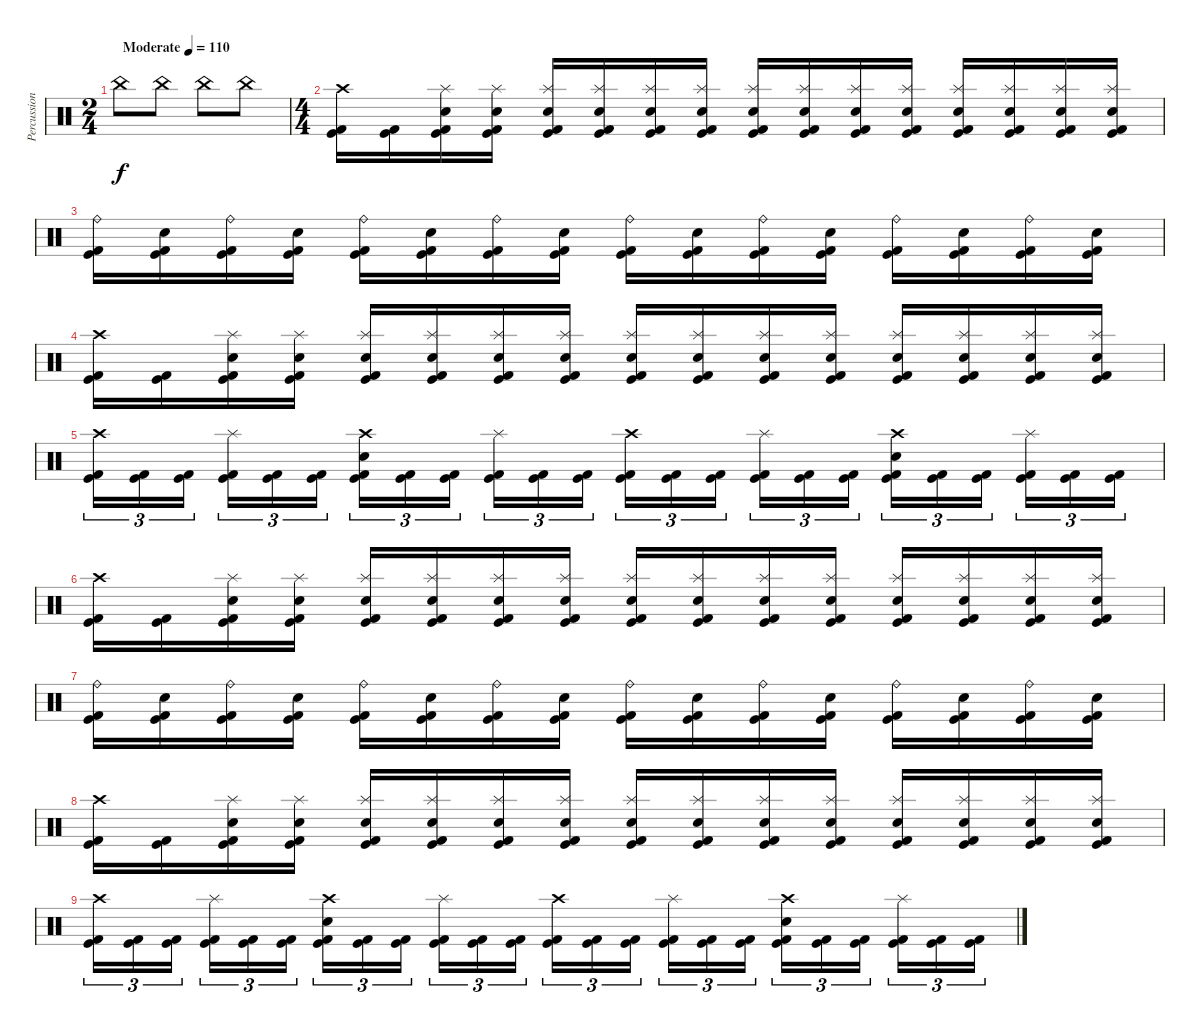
\track ("Percussion" "Percussion") {instrument percussion}
\staff {score}
\articulation defaults
\ts (2 4)
\tempo (110 "Moderate")
\clef neutral
\ks c "China (hit)".8{dy f} "China (hit)".8 "China (hit)".8 "China (hit)".8
|
\ts (4 4)
("Crash high (hit)" "Kick (hit) 2" "Kick (hit)").16 ("Kick (hit) 2" "Kick (hit)").16 ("Splash (hit)" "Snare (hit) 2" "Kick (hit) 2" "Kick (hit)").16 ("Splash (hit)" "Snare (hit) 2" "Kick (hit) 2" "Kick (hit)").16 ("Splash (hit)" "Snare (hit) 2" "Kick (hit) 2" "Kick (hit)").16 ("Splash (hit)" "Snare (hit) 2" "Kick (hit) 2" "Kick (hit)").16 ("Splash (hit)" "Snare (hit) 2" "Kick (hit) 2" "Kick (hit)").16 ("Splash (hit)" "Snare (hit) 2" "Kick (hit) 2" "Kick (hit)").16 ("Splash (hit)" "Snare (hit) 2" "Kick (hit) 2" "Kick (hit)").16 ("Splash (hit)" "Snare (hit) 2" "Kick (hit) 2" "Kick (hit)").16 ("Splash (hit)" "Snare (hit) 2" "Kick (hit) 2" "Kick (hit)").16 ("Splash (hit)" "Snare (hit) 2" "Kick (hit) 2" "Kick (hit)").16 ("Splash (hit)" "Snare (hit) 2" "Kick (hit) 2" "Kick (hit)").16 ("Splash (hit)" "Snare (hit) 2" "Kick (hit) 2" "Kick (hit)").16 ("Splash (hit)" "Snare (hit) 2" "Kick (hit) 2" "Kick (hit)").16 ("Splash (hit)" "Snare (hit) 2" "Kick (hit) 2" "Kick (hit)").16 |
("Ride (bell)" "Kick (hit) 2" "Kick (hit)").16 ("Snare (hit) 2" "Kick (hit) 2" "Kick (hit)").16 ("Ride (bell)" "Kick (hit) 2" "Kick (hit)").16 ("Snare (hit) 2" "Kick (hit) 2" "Kick (hit)").16 ("Ride (bell)" "Kick (hit) 2" "Kick (hit)").16 ("Snare (hit) 2" "Kick (hit) 2" "Kick (hit)").16 ("Ride (bell)" "Kick (hit) 2" "Kick (hit)").16 ("Snare (hit) 2" "Kick (hit) 2" "Kick (hit)").16 ("Ride (bell)" "Kick (hit) 2" "Kick (hit)").16 ("Snare (hit) 2" "Kick (hit) 2" "Kick (hit)").16 ("Ride (bell)" "Kick (hit) 2" "Kick (hit)").16 ("Snare (hit) 2" "Kick (hit) 2" "Kick (hit)").16 ("Ride (bell)" "Kick (hit) 2" "Kick (hit)").16 ("Snare (hit) 2" "Kick (hit) 2" "Kick (hit)").16 ("Ride (bell)" "Kick (hit) 2" "Kick (hit)").16 ("Snare (hit) 2" "Kick (hit) 2" "Kick (hit)").16 |
("Crash high (hit)" "Kick (hit) 2" "Kick (hit)").16 ("Kick (hit) 2" "Kick (hit)").16 ("Splash (hit)" "Snare (hit) 2" "Kick (hit) 2" "Kick (hit)").16 ("Splash (hit)" "Snare (hit) 2" "Kick (hit) 2" "Kick (hit)").16 ("Splash (hit)" "Snare (hit) 2" "Kick (hit) 2" "Kick (hit)").16 ("Splash (hit)" "Snare (hit) 2" "Kick (hit) 2" "Kick (hit)").16 ("Splash (hit)" "Snare (hit) 2" "Kick (hit) 2" "Kick (hit)").16 ("Splash (hit)" "Snare (hit) 2" "Kick (hit) 2" "Kick (hit)").16 ("Splash (hit)" "Snare (hit) 2" "Kick (hit) 2" "Kick (hit)").16 ("Splash (hit)" "Snare (hit) 2" "Kick (hit) 2" "Kick (hit)").16 ("Splash (hit)" "Snare (hit) 2" "Kick (hit) 2" "Kick (hit)").16 ("Splash (hit)" "Snare (hit) 2" "Kick (hit) 2" "Kick (hit)").16 ("Splash (hit)" "Snare (hit) 2" "Kick (hit) 2" "Kick (hit)").16 ("Splash (hit)" "Snare (hit) 2" "Kick (hit) 2" "Kick (hit)").16 ("Splash (hit)" "Snare (hit) 2" "Kick (hit) 2" "Kick (hit)").16 ("Splash (hit)" "Snare (hit) 2" "Kick (hit) 2" "Kick (hit)").16 |
("Crash high (hit)" "Kick (hit) 2" "Kick (hit)").16{tu (3 2)} ("Kick (hit) 2" "Kick (hit)").16{tu (3 2)} ("Kick (hit) 2" "Kick (hit)").16{tu (3 2) beam splitsecondary} ("Splash (hit)" "Kick (hit) 2" "Kick (hit)").16{tu (3 2)} ("Kick (hit) 2" "Kick (hit)").16{tu (3 2)} ("Kick (hit) 2" "Kick (hit)").16{tu (3 2)} ("Crash high (hit)" "Snare (hit) 2" "Kick (hit) 2" "Kick (hit)").16{tu (3 2)} ("Kick (hit) 2" "Kick (hit)").16{tu (3 2)} ("Kick (hit) 2" "Kick (hit)").16{tu (3 2) beam splitsecondary} ("Splash (hit)" "Kick (hit) 2" "Kick (hit)").16{tu (3 2)} ("Kick (hit) 2" "Kick (hit)").16{tu (3 2)} ("Kick (hit) 2" "Kick (hit)").16{tu (3 2)} ("Crash high (hit)" "Kick (hit) 2" "Kick (hit)").16{tu (3 2)} ("Kick (hit) 2" "Kick (hit)").16{tu (3 2)} ("Kick (hit) 2" "Kick (hit)").16{tu (3 2) beam splitsecondary} ("Splash (hit)" "Kick (hit) 2" "Kick (hit)").16{tu (3 2)} ("Kick (hit) 2" "Kick (hit)").16{tu (3 2)} ("Kick (hit) 2" "Kick (hit)").16{tu (3 2)} ("Crash high (hit)" "Snare (hit) 2" "Kick (hit) 2" "Kick (hit)").16{tu (3 2)} ("Kick (hit) 2" "Kick (hit)").16{tu (3 2)} ("Kick (hit) 2" "Kick (hit)").16{tu (3 2) beam splitsecondary} ("Splash (hit)" "Kick (hit) 2" "Kick (hit)").16{tu (3 2)} ("Kick (hit) 2" "Kick (hit)").16{tu (3 2)} ("Kick (hit) 2" "Kick (hit)").16{tu (3 2)} |
("Crash high (hit)" "Kick (hit) 2" "Kick (hit)").16 ("Kick (hit) 2" "Kick (hit)").16 ("Splash (hit)" "Snare (hit) 2" "Kick (hit) 2" "Kick (hit)").16 ("Splash (hit)" "Snare (hit) 2" "Kick (hit) 2" "Kick (hit)").16 ("Splash (hit)" "Snare (hit) 2" "Kick (hit) 2" "Kick (hit)").16 ("Splash (hit)" "Snare (hit) 2" "Kick (hit) 2" "Kick (hit)").16 ("Splash (hit)" "Snare (hit) 2" "Kick (hit) 2" "Kick (hit)").16 ("Splash (hit)" "Snare (hit) 2" "Kick (hit) 2" "Kick (hit)").16 ("Splash (hit)" "Snare (hit) 2" "Kick (hit) 2" "Kick (hit)").16 ("Splash (hit)" "Snare (hit) 2" "Kick (hit) 2" "Kick (hit)").16 ("Splash (hit)" "Snare (hit) 2" "Kick (hit) 2" "Kick (hit)").16 ("Splash (hit)" "Snare (hit) 2" "Kick (hit) 2" "Kick (hit)").16 ("Splash (hit)" "Snare (hit) 2" "Kick (hit) 2" "Kick (hit)").16 ("Splash (hit)" "Snare (hit) 2" "Kick (hit) 2" "Kick (hit)").16 ("Splash (hit)" "Snare (hit) 2" "Kick (hit) 2" "Kick (hit)").16 ("Splash (hit)" "Snare (hit) 2" "Kick (hit) 2" "Kick (hit)").16 |
("Ride (bell)" "Kick (hit) 2" "Kick (hit)").16 ("Snare (hit) 2" "Kick (hit) 2" "Kick (hit)").16 ("Ride (bell)" "Kick (hit) 2" "Kick (hit)").16 ("Snare (hit) 2" "Kick (hit) 2" "Kick (hit)").16 ("Ride (bell)" "Kick (hit) 2" "Kick (hit)").16 ("Snare (hit) 2" "Kick (hit) 2" "Kick (hit)").16 ("Ride (bell)" "Kick (hit) 2" "Kick (hit)").16 ("Snare (hit) 2" "Kick (hit) 2" "Kick (hit)").16 ("Ride (bell)" "Kick (hit) 2" "Kick (hit)").16 ("Snare (hit) 2" "Kick (hit) 2" "Kick (hit)").16 ("Ride (bell)" "Kick (hit) 2" "Kick (hit)").16 ("Snare (hit) 2" "Kick (hit) 2" "Kick (hit)").16 ("Ride (bell)" "Kick (hit) 2" "Kick (hit)").16 ("Snare (hit) 2" "Kick (hit) 2" "Kick (hit)").16 ("Ride (bell)" "Kick (hit) 2" "Kick (hit)").16 ("Snare (hit) 2" "Kick (hit) 2" "Kick (hit)").16 |
("Crash high (hit)" "Kick (hit) 2" "Kick (hit)").16 ("Kick (hit) 2" "Kick (hit)").16 ("Splash (hit)" "Snare (hit) 2" "Kick (hit) 2" "Kick (hit)").16 ("Splash (hit)" "Snare (hit) 2" "Kick (hit) 2" "Kick (hit)").16 ("Splash (hit)" "Snare (hit) 2" "Kick (hit) 2" "Kick (hit)").16 ("Splash (hit)" "Snare (hit) 2" "Kick (hit) 2" "Kick (hit)").16 ("Splash (hit)" "Snare (hit) 2" "Kick (hit) 2" "Kick (hit)").16 ("Splash (hit)" "Snare (hit) 2" "Kick (hit) 2" "Kick (hit)").16 ("Splash (hit)" "Snare (hit) 2" "Kick (hit) 2" "Kick (hit)").16 ("Splash (hit)" "Snare (hit) 2" "Kick (hit) 2" "Kick (hit)").16 ("Splash (hit)" "Snare (hit) 2" "Kick (hit) 2" "Kick (hit)").16 ("Splash (hit)" "Snare (hit) 2" "Kick (hit) 2" "Kick (hit)").16 ("Splash (hit)" "Snare (hit) 2" "Kick (hit) 2" "Kick (hit)").16 ("Splash (hit)" "Snare (hit) 2" "Kick (hit) 2" "Kick (hit)").16 ("Splash (hit)" "Snare (hit) 2" "Kick (hit) 2" "Kick (hit)").16 ("Splash (hit)" "Snare (hit) 2" "Kick (hit) 2" "Kick (hit)").16 |
("Crash high (hit)" "Kick (hit) 2" "Kick (hit)").16{tu (3 2)} ("Kick (hit) 2" "Kick (hit)").16{tu (3 2)} ("Kick (hit) 2" "Kick (hit)").16{tu (3 2) beam splitsecondary} ("Splash (hit)" "Kick (hit) 2" "Kick (hit)").16{tu (3 2)} ("Kick (hit) 2" "Kick (hit)").16{tu (3 2)} ("Kick (hit) 2" "Kick (hit)").16{tu (3 2)} ("Crash high (hit)" "Snare (hit) 2" "Kick (hit) 2" "Kick (hit)").16{tu (3 2)} ("Kick (hit) 2" "Kick (hit)").16{tu (3 2)} ("Kick (hit) 2" "Kick (hit)").16{tu (3 2) beam splitsecondary} ("Splash (hit)" "Kick (hit) 2" "Kick (hit)").16{tu (3 2)} ("Kick (hit) 2" "Kick (hit)").16{tu (3 2)} ("Kick (hit) 2" "Kick (hit)").16{tu (3 2)} ("Crash high (hit)" "Kick (hit) 2" "Kick (hit)").16{tu (3 2)} ("Kick (hit) 2" "Kick (hit)").16{tu (3 2)} ("Kick (hit) 2" "Kick (hit)").16{tu (3 2) beam splitsecondary} ("Splash (hit)" "Kick (hit) 2" "Kick (hit)").16{tu (3 2)} ("Kick (hit) 2" "Kick (hit)").16{tu (3 2)} ("Kick (hit) 2" "Kick (hit)").16{tu (3 2)} ("Crash high (hit)" "Snare (hit) 2" "Kick (hit) 2" "Kick (hit)").16{tu (3 2)} ("Kick (hit) 2" "Kick (hit)").16{tu (3 2)} ("Kick (hit) 2" "Kick (hit)").16{tu (3 2) beam splitsecondary} ("Splash (hit)" "Kick (hit) 2" "Kick (hit)").16{tu (3 2)} ("Kick (hit) 2" "Kick (hit)").16{tu (3 2)} ("Kick (hit) 2" "Kick (hit)").16{tu (3 2)}
